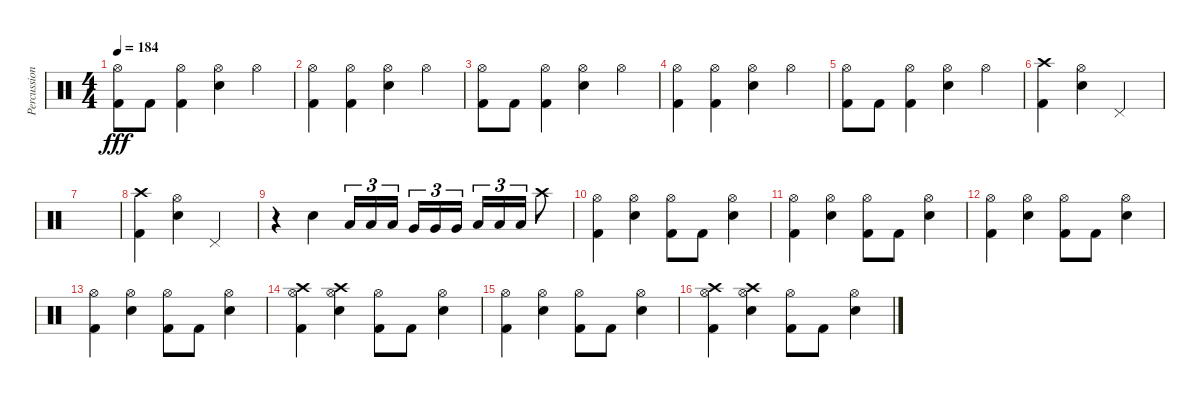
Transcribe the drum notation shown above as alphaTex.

\track ("Percussion" "Percussion") {instrument percussion}
\staff {score}
\articulation defaults
\ts (4 4)
\tempo 184
\clef neutral
\ks c
("Hi-Hat (open)" "Kick (hit) 2").8{dy fff} "Kick (hit) 2".8 ("Hi-Hat (open)" "Kick (hit) 2").4 ("Hi-Hat (open)" "Snare (hit) 2").4 "Hi-Hat (open)".4 |
("Hi-Hat (open)" "Kick (hit) 2").4 ("Hi-Hat (open)" "Kick (hit) 2").4 ("Hi-Hat (open)" "Snare (hit) 2").4 "Hi-Hat (open)".4 |
("Hi-Hat (open)" "Kick (hit) 2").8 "Kick (hit) 2".8 ("Hi-Hat (open)" "Kick (hit) 2").4 ("Hi-Hat (open)" "Snare (hit) 2").4 "Hi-Hat (open)".4 |
("Hi-Hat (open)" "Kick (hit) 2").4 ("Hi-Hat (open)" "Kick (hit) 2").4 ("Hi-Hat (open)" "Snare (hit) 2").4 "Hi-Hat (open)".4 |
("Hi-Hat (open)" "Kick (hit) 2").8 "Kick (hit) 2".8 ("Hi-Hat (open)" "Kick (hit) 2").4 ("Hi-Hat (open)" "Snare (hit) 2").4 "Hi-Hat (open)".4 |
("Crash high (hit)" "Kick (hit) 2").4 ("Hi-Hat (open)" "Snare (hit) 2").4 "Pedal Hi-Hat (hit)".2 |
|
("Crash high (hit)" "Kick (hit) 2").4 ("Hi-Hat (open)" "Snare (hit) 2").4 "Pedal Hi-Hat (hit)".2 |
r.4 "Snare (hit) 2".4 "Low Tom (hit)".16{tu (3 2)} "Low Tom (hit)".16{tu (3 2)} "Low Tom (hit)".16{tu (3 2) beam splitsecondary} "Very Low Tom (hit)".16{tu (3 2)} "Very Low Tom (hit)".16{tu (3 2)} "Very Low Tom (hit)".16{tu (3 2)} "Low Floor Tom (hit)".16{tu (3 2)} "Low Floor Tom (hit)".16{tu (3 2)} "Low Floor Tom (hit)".16{tu (3 2)} "Crash high (hit)".8 |
("Hi-Hat (open)" "Kick (hit) 2").4 ("Hi-Hat (open)" "Snare (hit) 2").4 ("Hi-Hat (open)" "Kick (hit) 2").8 "Kick (hit) 2".8 ("Hi-Hat (open)" "Snare (hit) 2").4 |
("Hi-Hat (open)" "Kick (hit) 2").4 ("Hi-Hat (open)" "Snare (hit) 2").4 ("Hi-Hat (open)" "Kick (hit) 2").8 "Kick (hit) 2".8 ("Hi-Hat (open)" "Snare (hit) 2").4 |
("Hi-Hat (open)" "Kick (hit) 2").4 ("Hi-Hat (open)" "Snare (hit) 2").4 ("Hi-Hat (open)" "Kick (hit) 2").8 "Kick (hit) 2".8 ("Hi-Hat (open)" "Snare (hit) 2").4 |
("Hi-Hat (open)" "Kick (hit) 2").4 ("Hi-Hat (open)" "Snare (hit) 2").4 ("Hi-Hat (open)" "Kick (hit) 2").8 "Kick (hit) 2".8 ("Hi-Hat (open)" "Snare (hit) 2").4 |
("Crash high (hit)" "Hi-Hat (open)" "Kick (hit) 2").4 ("Crash high (hit)" "Hi-Hat (open)" "Snare (hit) 2").4 ("Hi-Hat (open)" "Kick (hit) 2").8 "Kick (hit) 2".8 ("Hi-Hat (open)" "Snare (hit) 2").4 |
("Hi-Hat (open)" "Kick (hit) 2").4 ("Hi-Hat (open)" "Snare (hit) 2").4 ("Hi-Hat (open)" "Kick (hit) 2").8 "Kick (hit) 2".8 ("Hi-Hat (open)" "Snare (hit) 2").4 |
("Crash high (hit)" "Hi-Hat (open)" "Kick (hit) 2").4 ("Crash high (hit)" "Hi-Hat (open)" "Snare (hit) 2").4 ("Hi-Hat (open)" "Kick (hit) 2").8 "Kick (hit) 2".8 ("Hi-Hat (open)" "Snare (hit) 2").4
